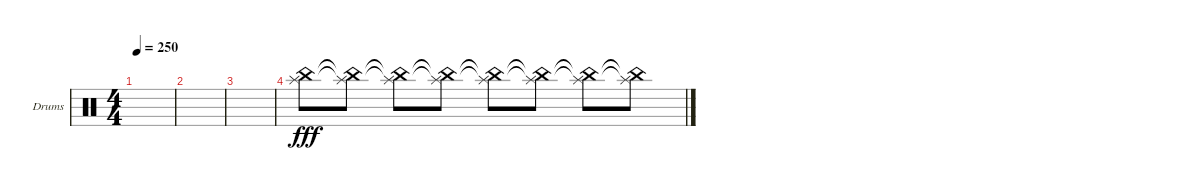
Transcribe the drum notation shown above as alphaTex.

\defaultSystemsLayout 4
\bracketExtendMode groupsimilarinstruments
\firstSystemTrackNameOrientation horizontal
\otherSystemsTrackNameOrientation horizontal
\track ("Драмки2" "Drums") {instrument percussion}
\staff {score}
\articulation defaults
\ts (4 4)
\tempo 250
\clef neutral
\scale
0.333333
\ks c
|
\scale
0.333333 |
\scale
0.333333 |
\scale
0.333333 ("China (hit)" "Splash (hit)").8{dy fff} ("China (hit)"{t} "Splash (hit)"{t}).8 ("China (hit)"{t} "Splash (hit)"{t}).8 ("China (hit)"{t} "Splash (hit)"{t}).8 ("China (hit)"{t} "Splash (hit)"{t}).8 ("China (hit)"{t} "Splash (hit)"{t}).8 ("China (hit)"{t} "Splash (hit)"{t}).8 ("China (hit)"{t} "Splash (hit)"{t}).8 |
\scale
0.333333 |
\scale
0.333333 |
\scale
0.333333 |
\scale
0.333333 |
\scale
0.333333 |
\scale
0.333333 |
\scale
0.333333 |
\scale
0.333333 |
\scale
0.333333 |
\scale
0.333333 |
\scale
0.333333 |
\scale
0.333333
